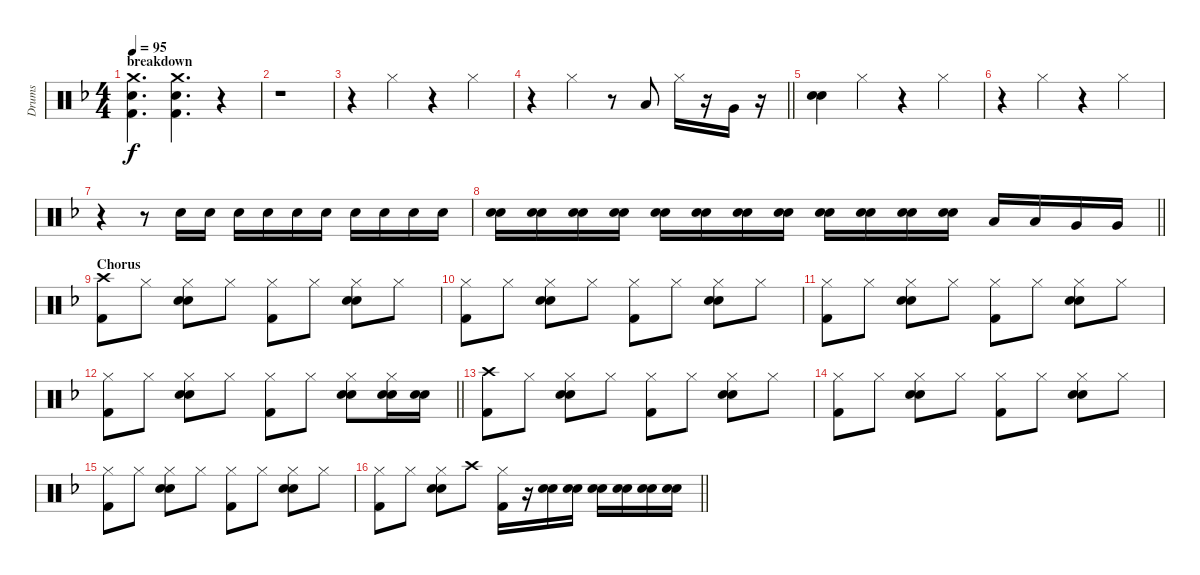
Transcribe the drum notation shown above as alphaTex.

\track ("Drums" "Drums") {instrument percussion}
\staff {score}
\articulation defaults
\ts (4 4)
\section ("" "breakdown")
\tempo 95
\clef neutral
\ks dminor
("Crash medium (hit)" "Electric Snare (hit)" "Kick (hit) 2").4{d dy f} ("Crash medium (hit)" "Electric Snare (hit)" "Kick (hit) 2").4{d} r.4 |
r.1 |
r.4 "Hi-Hat (closed)".4 r.4 "Hi-Hat (closed)".4 |
\barLineRight lightlight
r.4 "Hi-Hat (closed)".4 r.8 "Low Tom (hit)".8 "Hi-Hat (closed)".16 r.16 "Very Low Tom (hit)".16 r.16 |
("Snare (hit) 2" "Electric Snare (hit)").4 "Hi-Hat (closed)".4 r.4 "Hi-Hat (closed)".4 |
r.4 "Hi-Hat (closed)".4 r.4 "Hi-Hat (closed)".4 |
r.4 r.8 "Snare (hit) 2".16 "Snare (hit) 2".16 "Snare (hit) 2".16 "Snare (hit) 2".16 "Snare (hit) 2".16 "Snare (hit) 2".16 "Snare (hit) 2".16 "Snare (hit) 2".16 "Snare (hit) 2".16 "Snare (hit) 2".16 |
\barLineRight lightlight
("Snare (hit) 2" "Electric Snare (hit)").16 ("Snare (hit) 2" "Electric Snare (hit)").16 ("Snare (hit) 2" "Electric Snare (hit)").16 ("Snare (hit) 2" "Electric Snare (hit)").16 ("Snare (hit) 2" "Electric Snare (hit)").16 ("Snare (hit) 2" "Electric Snare (hit)").16 ("Snare (hit) 2" "Electric Snare (hit)").16 ("Snare (hit) 2" "Electric Snare (hit)").16 ("Snare (hit) 2" "Electric Snare (hit)").16 ("Snare (hit) 2" "Electric Snare (hit)").16 ("Snare (hit) 2" "Electric Snare (hit)").16 ("Snare (hit) 2" "Electric Snare (hit)").16 "Low Tom (hit)".16 "Low Tom (hit)".16 "Very Low Tom (hit)".16 "Very Low Tom (hit)".16 |
\section ("" "Chorus")
("Crash high (hit)" "Kick (hit) 2").8 "Hi-Hat (closed)".8 ("Hi-Hat (closed)" "Snare (hit) 2" "Electric Snare (hit)").8 "Hi-Hat (closed)".8 ("Hi-Hat (closed)" "Kick (hit) 2").8 "Hi-Hat (closed)".8 ("Hi-Hat (closed)" "Snare (hit) 2" "Electric Snare (hit)").8 "Hi-Hat (closed)".8 |
("Hi-Hat (closed)" "Kick (hit) 2").8 "Hi-Hat (closed)".8 ("Hi-Hat (closed)" "Snare (hit) 2" "Electric Snare (hit)").8 "Hi-Hat (closed)".8 ("Hi-Hat (closed)" "Kick (hit) 2").8 "Hi-Hat (closed)".8 ("Hi-Hat (closed)" "Snare (hit) 2" "Electric Snare (hit)").8 "Hi-Hat (closed)".8 |
("Hi-Hat (closed)" "Kick (hit) 2").8 "Hi-Hat (closed)".8 ("Hi-Hat (closed)" "Snare (hit) 2" "Electric Snare (hit)").8 "Hi-Hat (closed)".8 ("Hi-Hat (closed)" "Kick (hit) 2").8 "Hi-Hat (closed)".8 ("Hi-Hat (closed)" "Snare (hit) 2" "Electric Snare (hit)").8 "Hi-Hat (closed)".8 |
\barLineRight lightlight
("Hi-Hat (closed)" "Kick (hit) 2").8 "Hi-Hat (closed)".8 ("Hi-Hat (closed)" "Snare (hit) 2" "Electric Snare (hit)").8 "Hi-Hat (closed)".8 ("Hi-Hat (closed)" "Kick (hit) 2").8 "Hi-Hat (closed)".8 ("Hi-Hat (closed)" "Snare (hit) 2" "Electric Snare (hit)").8 ("Hi-Hat (closed)" "Snare (hit) 2" "Electric Snare (hit)").16 ("Snare (hit) 2" "Electric Snare (hit)").16 |
("Crash high (hit)" "Kick (hit) 2").8 "Hi-Hat (closed)".8 ("Hi-Hat (closed)" "Snare (hit) 2" "Electric Snare (hit)").8 "Hi-Hat (closed)".8 ("Hi-Hat (closed)" "Kick (hit) 2").8 "Hi-Hat (closed)".8 ("Hi-Hat (closed)" "Snare (hit) 2" "Electric Snare (hit)").8 "Hi-Hat (closed)".8 |
("Hi-Hat (closed)" "Kick (hit) 2").8 "Hi-Hat (closed)".8 ("Hi-Hat (closed)" "Snare (hit) 2" "Electric Snare (hit)").8 "Hi-Hat (closed)".8 ("Hi-Hat (closed)" "Kick (hit) 2").8 "Hi-Hat (closed)".8 ("Hi-Hat (closed)" "Snare (hit) 2" "Electric Snare (hit)").8 "Hi-Hat (closed)".8 |
("Hi-Hat (closed)" "Kick (hit) 2").8 "Hi-Hat (closed)".8 ("Hi-Hat (closed)" "Snare (hit) 2" "Electric Snare (hit)").8 "Hi-Hat (closed)".8 ("Hi-Hat (closed)" "Kick (hit) 2").8 "Hi-Hat (closed)".8 ("Hi-Hat (closed)" "Snare (hit) 2" "Electric Snare (hit)").8 "Hi-Hat (closed)".8 |
\barLineRight lightlight
("Hi-Hat (closed)" "Kick (hit) 2").8 "Hi-Hat (closed)".8 ("Hi-Hat (closed)" "Snare (hit) 2" "Electric Snare (hit)").8 "Crash high (hit)".8 ("Hi-Hat (closed)" "Kick (hit) 2").16 r.16 ("Snare (hit) 2" "Electric Snare (hit)").16 ("Snare (hit) 2" "Electric Snare (hit)").16 ("Snare (hit) 2" "Electric Snare (hit)").16 ("Snare (hit) 2" "Electric Snare (hit)").16 ("Snare (hit) 2" "Electric Snare (hit)").16 ("Snare (hit) 2" "Electric Snare (hit)").16
